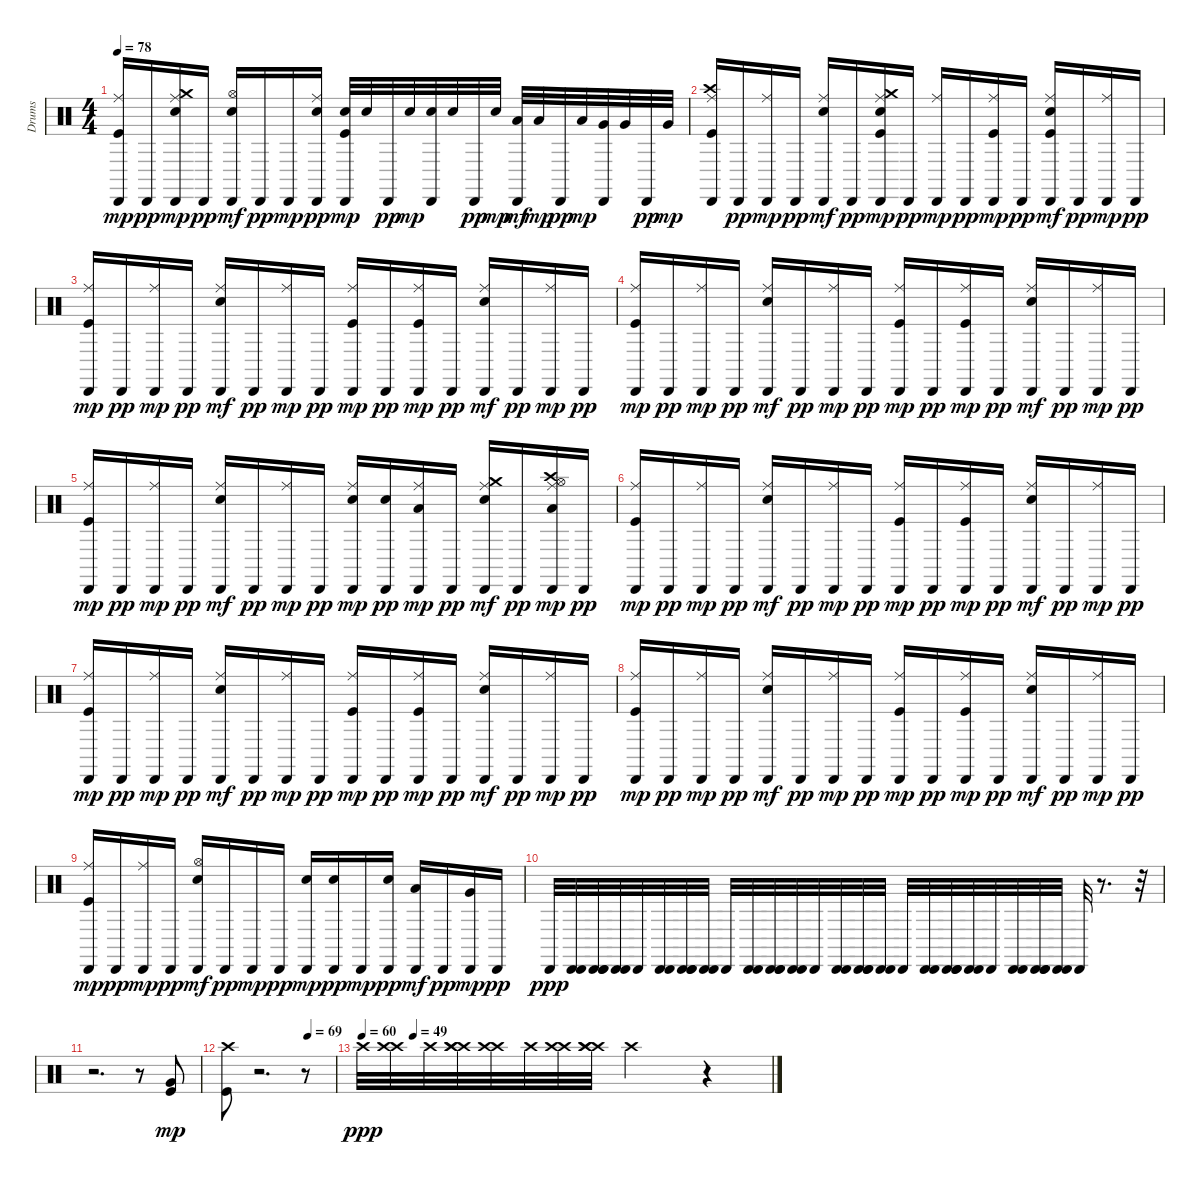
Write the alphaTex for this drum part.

\track ("Drums" "Drums") {instrument percussion}
\staff {score}
\articulation defaults
\ts (4 4)
\tempo 78
\clef neutral
\ks c
("Kick (hit)" "Ride (middle)" "Cabasa (hit)").16{dy mp volume 8 balance 8} "Cabasa (hit)".16{dy pp} ("Snare (hit) 2" "Crash medium (hit)" "Ride (middle)" "Cabasa (hit)").16{dy mp volume 8 balance 8} "Cabasa (hit)".16{dy pp} ("Snare (hit) 2" "Hi-Hat (open)" "Cabasa (hit)").16{dy mf volume 8 balance 8} "Cabasa (hit)".16{dy pp} "Cabasa (hit)".16{dy mp} ("Snare (hit) 2" "Ride (middle)" "Cabasa (hit)").16{dy pp volume 8 balance 8} ("Kick (hit)" "Snare (hit) 2" "Cabasa (hit)").32{dy mp volume 8 balance 8} "Snare (hit) 2".32{volume 16} "Cabasa (hit)".32{dy pp volume 8} "Snare (hit) 2".32{dy mp volume 16} ("Snare (hit) 2" "Cabasa (hit)").32{volume 8} "Snare (hit) 2".32{volume 16} "Cabasa (hit)".32{dy pp volume 8} "Snare (hit) 2".32{dy mp volume 16} ("Low Tom (hit)" "Cabasa (hit)").32{dy mf volume 8} "Low Tom (hit)".32{dy mp volume 16} "Cabasa (hit)".32{dy pp volume 8} "Low Tom (hit)".32{dy mp volume 16} ("Very Low Tom (hit)" "Cabasa (hit)").32{volume 8} "Very Low Tom (hit)".32{volume 16} "Cabasa (hit)".32{dy pp volume 8} "Very Low Tom (hit)".32{dy mp volume 16} |
("Kick (hit)" "Crash high (hit)" "Ride (middle)" "Cabasa (hit)").16{volume 8 balance 8} "Cabasa (hit)".16{dy pp} ("Ride (middle)" "Cabasa (hit)").16{dy mp volume 8 balance 8} "Cabasa (hit)".16{dy pp} ("Snare (hit) 2" "Ride (middle)" "Cabasa (hit)").16{dy mf volume 8 balance 8} "Cabasa (hit)".16{dy pp} ("Kick (hit)" "Snare (hit) 2" "Crash medium (hit)" "Ride (middle)" "Cabasa (hit)").16{dy mp volume 8 balance 8} "Cabasa (hit)".16{dy pp} ("Ride (middle)" "Cabasa (hit)").16{dy mp volume 8 balance 7} "Cabasa (hit)".16{dy pp} ("Kick (hit)" "Ride (middle)" "Cabasa (hit)").16{dy mp volume 8 balance 8} "Cabasa (hit)".16{dy pp} ("Kick (hit)" "Snare (hit) 2" "Ride (middle)" "Cabasa (hit)").16{dy mf volume 8 balance 8} "Cabasa (hit)".16{dy pp} ("Ride (middle)" "Cabasa (hit)").16{dy mp volume 8 balance 8} "Cabasa (hit)".16{dy pp} |
("Kick (hit)" "Ride (middle)" "Cabasa (hit)").16{dy mp volume 8 balance 8} "Cabasa (hit)".16{dy pp} ("Ride (middle)" "Cabasa (hit)").16{dy mp volume 8 balance 8} "Cabasa (hit)".16{dy pp} ("Snare (hit) 2" "Ride (middle)" "Cabasa (hit)").16{dy mf volume 8 balance 8} "Cabasa (hit)".16{dy pp} ("Ride (middle)" "Cabasa (hit)").16{dy mp volume 8 balance 8} "Cabasa (hit)".16{dy pp} ("Kick (hit)" "Ride (middle)" "Cabasa (hit)").16{dy mp volume 8 balance 8} "Cabasa (hit)".16{dy pp} ("Kick (hit)" "Ride (middle)" "Cabasa (hit)").16{dy mp volume 8 balance 8} "Cabasa (hit)".16{dy pp} ("Snare (hit) 2" "Ride (middle)" "Cabasa (hit)").16{dy mf volume 8 balance 8} "Cabasa (hit)".16{dy pp} ("Ride (middle)" "Cabasa (hit)").16{dy mp volume 8 balance 8} "Cabasa (hit)".16{dy pp} |
("Kick (hit)" "Ride (middle)" "Cabasa (hit)").16{dy mp volume 8 balance 8} "Cabasa (hit)".16{dy pp} ("Ride (middle)" "Cabasa (hit)").16{dy mp volume 8 balance 8} "Cabasa (hit)".16{dy pp} ("Snare (hit) 2" "Ride (middle)" "Cabasa (hit)").16{dy mf volume 8 balance 8} "Cabasa (hit)".16{dy pp} ("Ride (middle)" "Cabasa (hit)").16{dy mp volume 8 balance 8} "Cabasa (hit)".16{dy pp} ("Kick (hit)" "Ride (middle)" "Cabasa (hit)").16{dy mp volume 8 balance 8} "Cabasa (hit)".16{dy pp} ("Kick (hit)" "Ride (middle)" "Cabasa (hit)").16{dy mp volume 8 balance 8} "Cabasa (hit)".16{dy pp} ("Snare (hit) 2" "Ride (middle)" "Cabasa (hit)").16{dy mf volume 8 balance 8} "Cabasa (hit)".16{dy pp} ("Ride (middle)" "Cabasa (hit)").16{dy mp volume 8 balance 8} "Cabasa (hit)".16{dy pp} |
("Kick (hit)" "Ride (middle)" "Cabasa (hit)").16{dy mp volume 8 balance 8} "Cabasa (hit)".16{dy pp} ("Ride (middle)" "Cabasa (hit)").16{dy mp volume 8 balance 8} "Cabasa (hit)".16{dy pp} ("Snare (hit) 2" "Ride (middle)" "Cabasa (hit)").16{dy mf volume 8 balance 8} "Cabasa (hit)".16{dy pp} ("Ride (middle)" "Cabasa (hit)").16{dy mp volume 8 balance 8} "Cabasa (hit)".16{dy pp} ("Snare (hit) 2" "Ride (middle)" "Cabasa (hit)").16{dy mp volume 8 balance 8} ("Snare (hit) 2" "Cabasa (hit)").16{dy pp volume 8} ("Low Tom (hit)" "Ride (middle)" "Cabasa (hit)").16{dy mp volume 8 balance 8} "Cabasa (hit)".16{dy pp} ("Snare (hit) 2" "Crash medium (hit)" "Ride (middle)" "Cabasa (hit)").16{dy mf volume 8 balance 8} "Cabasa (hit)".16{dy pp} ("Low Tom (hit)" "Hi-Hat (open)" "Crash high (hit)" "Ride (middle)" "Cabasa (hit)").16{dy mp volume 8 balance 8} "Cabasa (hit)".16{dy pp} |
("Kick (hit)" "Ride (middle)" "Cabasa (hit)").16{dy mp volume 8 balance 8} "Cabasa (hit)".16{dy pp} ("Ride (middle)" "Cabasa (hit)").16{dy mp volume 8 balance 8} "Cabasa (hit)".16{dy pp} ("Snare (hit) 2" "Ride (middle)" "Cabasa (hit)").16{dy mf volume 8 balance 8} "Cabasa (hit)".16{dy pp} ("Ride (middle)" "Cabasa (hit)").16{dy mp volume 8 balance 8} "Cabasa (hit)".16{dy pp} ("Kick (hit)" "Ride (middle)" "Cabasa (hit)").16{dy mp volume 8 balance 8} "Cabasa (hit)".16{dy pp} ("Kick (hit)" "Ride (middle)" "Cabasa (hit)").16{dy mp volume 8 balance 8} "Cabasa (hit)".16{dy pp} ("Snare (hit) 2" "Ride (middle)" "Cabasa (hit)").16{dy mf volume 8 balance 8} "Cabasa (hit)".16{dy pp} ("Ride (middle)" "Cabasa (hit)").16{dy mp volume 8 balance 8} "Cabasa (hit)".16{dy pp} |
("Kick (hit)" "Ride (middle)" "Cabasa (hit)").16{dy mp volume 8 balance 8} "Cabasa (hit)".16{dy pp} ("Ride (middle)" "Cabasa (hit)").16{dy mp volume 8 balance 8} "Cabasa (hit)".16{dy pp} ("Snare (hit) 2" "Ride (middle)" "Cabasa (hit)").16{dy mf volume 8 balance 8} "Cabasa (hit)".16{dy pp} ("Ride (middle)" "Cabasa (hit)").16{dy mp volume 8 balance 8} "Cabasa (hit)".16{dy pp} ("Kick (hit)" "Ride (middle)" "Cabasa (hit)").16{dy mp volume 8 balance 8} "Cabasa (hit)".16{dy pp} ("Kick (hit)" "Ride (middle)" "Cabasa (hit)").16{dy mp volume 8 balance 8} "Cabasa (hit)".16{dy pp} ("Snare (hit) 2" "Ride (middle)" "Cabasa (hit)").16{dy mf volume 8 balance 8} "Cabasa (hit)".16{dy pp} ("Ride (middle)" "Cabasa (hit)").16{dy mp volume 8 balance 8} "Cabasa (hit)".16{dy pp} |
("Kick (hit)" "Ride (middle)" "Cabasa (hit)").16{dy mp volume 8 balance 8} "Cabasa (hit)".16{dy pp} ("Ride (middle)" "Cabasa (hit)").16{dy mp volume 8 balance 8} "Cabasa (hit)".16{dy pp} ("Snare (hit) 2" "Ride (middle)" "Cabasa (hit)").16{dy mf volume 8 balance 8} "Cabasa (hit)".16{dy pp} ("Ride (middle)" "Cabasa (hit)").16{dy mp volume 8 balance 8} "Cabasa (hit)".16{dy pp} ("Kick (hit)" "Ride (middle)" "Cabasa (hit)").16{dy mp volume 8 balance 8} "Cabasa (hit)".16{dy pp} ("Kick (hit)" "Ride (middle)" "Cabasa (hit)").16{dy mp volume 8 balance 8} "Cabasa (hit)".16{dy pp} ("Snare (hit) 2" "Ride (middle)" "Cabasa (hit)").16{dy mf volume 8 balance 8} "Cabasa (hit)".16{dy pp} ("Ride (middle)" "Cabasa (hit)").16{dy mp volume 8 balance 8} "Cabasa (hit)".16{dy pp} |
("Kick (hit)" "Ride (middle)" "Cabasa (hit)").16{dy mp volume 8 balance 8} "Cabasa (hit)".16{dy pp} ("Ride (middle)" "Cabasa (hit)").16{dy mp volume 8 balance 8} "Cabasa (hit)".16{dy pp} ("Snare (hit) 2" "Hi-Hat (open)" "Cabasa (hit)").16{dy mf volume 8 balance 8} "Cabasa (hit)".16{dy pp} "Cabasa (hit)".16{dy mp} "Cabasa (hit)".16{dy pp} ("Snare (hit) 2" "Cabasa (hit)").16{dy mp volume 8} ("Snare (hit) 2" "Cabasa (hit)").16{dy pp volume 8} "Cabasa (hit)".16{dy mp} ("Snare (hit) 2" "Cabasa (hit)").16{dy pp volume 8} ("Low Tom (hit)" "Cabasa (hit)").16{dy mf volume 8} "Cabasa (hit)".16{dy pp} ("Very Low Tom (hit)" "Cabasa (hit)").16{dy mp volume 8} "Cabasa (hit)".16{dy pp} |
"Cabasa (hit)".32{dy ppp} ("Cabasa (hit)" "Cabasa (hit)").32 ("Cabasa (hit)" "Cabasa (hit)" "Cabasa (hit)").32 ("Cabasa (hit)" "Cabasa (hit)").32 "Cabasa (hit)".32 ("Cabasa (hit)" "Cabasa (hit)").32 ("Cabasa (hit)" "Cabasa (hit)" "Cabasa (hit)").32 ("Cabasa (hit)" "Cabasa (hit)").32 "Cabasa (hit)".32 ("Cabasa (hit)" "Cabasa (hit)").32 ("Cabasa (hit)" "Cabasa (hit)" "Cabasa (hit)").32 ("Cabasa (hit)" "Cabasa (hit)").32 "Cabasa (hit)".32 ("Cabasa (hit)" "Cabasa (hit)").32 ("Cabasa (hit)" "Cabasa (hit)" "Cabasa (hit)").32 ("Cabasa (hit)" "Cabasa (hit)").32 "Cabasa (hit)".32 ("Cabasa (hit)" "Cabasa (hit)").32 ("Cabasa (hit)" "Cabasa (hit)" "Cabasa (hit)").32 ("Cabasa (hit)" "Cabasa (hit)").32 "Cabasa (hit)".32 ("Cabasa (hit)" "Cabasa (hit)").32 ("Cabasa (hit)" "Cabasa (hit)" "Cabasa (hit)").32 ("Cabasa (hit)" "Cabasa (hit)").32 "Cabasa (hit)".32 r.8{d} r.32 |
r.2{d} r.8 ("Kick (hit)" "Very Low Tom (hit)").8{dy mp volume 16 balance 8} |
\tempo (69 0.75)
("Kick (hit)" "Crash high (hit)").8{volume 12 balance 8} r.2{d} r.8 |
\tempo 60
\tempo (49 0.125)
"Crash high (hit)".32{dy ppp volume 3} ("Crash high (hit)" "Crash high (hit)").32{volume 3} "Crash high (hit)".32{volume 3} ("Crash high (hit)" "Crash high (hit)" "Crash high (hit)").32{volume 3} ("Crash high (hit)" "Crash high (hit)").32{volume 3} "Crash high (hit)".32{volume 3} ("Crash high (hit)" "Crash high (hit)").32{volume 3} ("Crash high (hit)" "Crash high (hit)" "Crash high (hit)").32{volume 3} "Crash high (hit)".2{volume 0} r.4
